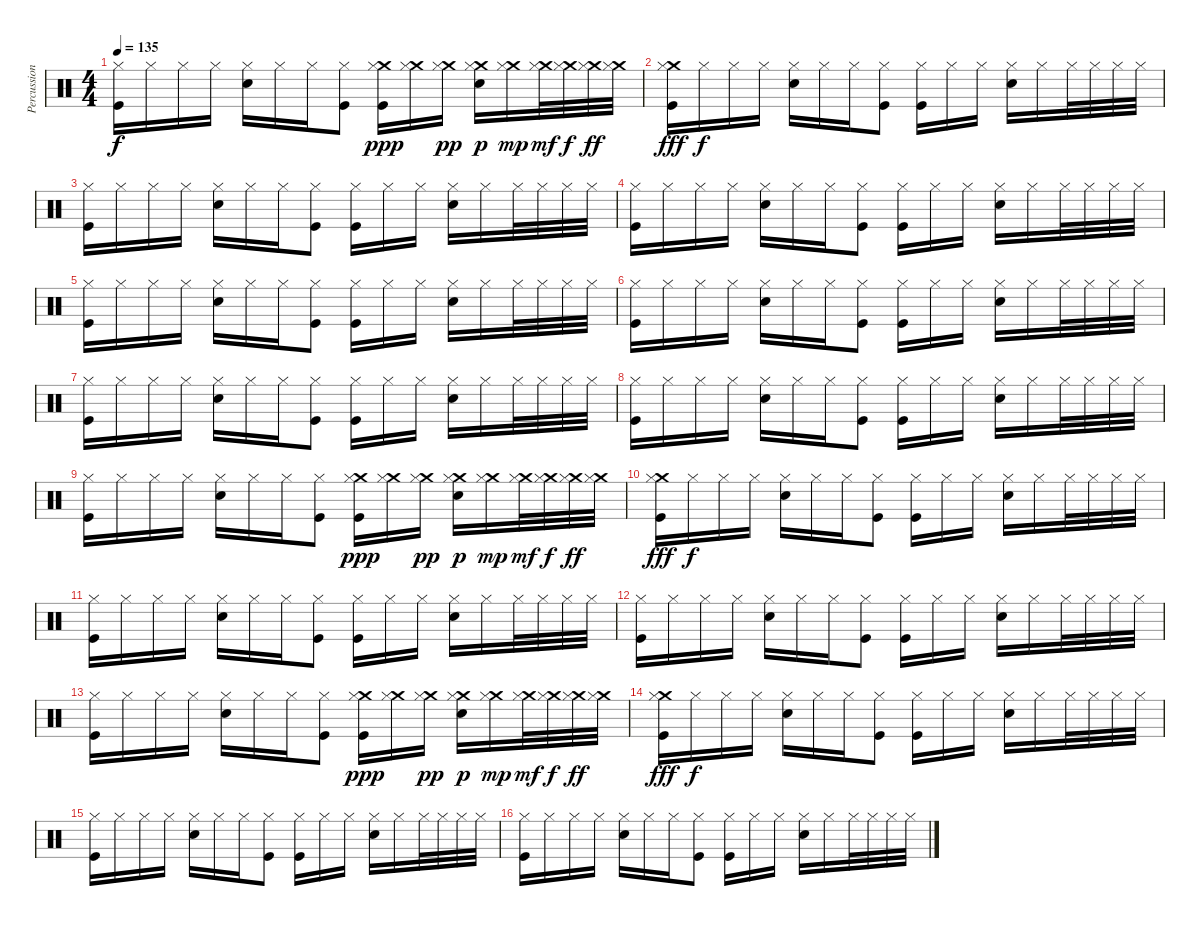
\track ("Percussion" "Percussion") {instrument percussion}
\staff {score}
\articulation defaults
\ts (4 4)
\tempo 135
\clef neutral
\ks c
("Hi-Hat (closed)" "Kick (hit)").16{dy f} "Hi-Hat (closed)".16 "Hi-Hat (closed)".16 "Hi-Hat (closed)".16 ("Hi-Hat (closed)" "Snare (hit) 2").16 "Hi-Hat (closed)".16 "Hi-Hat (closed)".16 ("Hi-Hat (closed)" "Kick (hit)").8 ("Crash medium (hit)" "Hi-Hat (closed)" "Kick (hit)").16{dy ppp} ("Crash medium (hit)" "Hi-Hat (closed)").16 ("Crash medium (hit)" "Hi-Hat (closed)").16{dy pp} ("Crash medium (hit)" "Hi-Hat (closed)" "Snare (hit) 2").16{dy p} ("Crash medium (hit)" "Hi-Hat (closed)").16{dy mp} ("Crash medium (hit)" "Hi-Hat (closed)").32{dy mf} ("Crash medium (hit)" "Hi-Hat (closed)").32{dy f} ("Crash medium (hit)" "Hi-Hat (closed)").32{dy ff} ("Crash medium (hit)" "Hi-Hat (closed)").32 |
("Crash medium (hit)" "Hi-Hat (closed)" "Kick (hit)").16{dy fff} "Hi-Hat (closed)".16{dy f} "Hi-Hat (closed)".16 "Hi-Hat (closed)".16 ("Hi-Hat (closed)" "Snare (hit) 2").16 "Hi-Hat (closed)".16 "Hi-Hat (closed)".16 ("Hi-Hat (closed)" "Kick (hit)").8 ("Hi-Hat (closed)" "Kick (hit)").16 "Hi-Hat (closed)".16 "Hi-Hat (closed)".16 ("Hi-Hat (closed)" "Snare (hit) 2").16 "Hi-Hat (closed)".16 "Hi-Hat (closed)".32 "Hi-Hat (closed)".32 "Hi-Hat (closed)".32 "Hi-Hat (closed)".32 |
("Hi-Hat (closed)" "Kick (hit)").16 "Hi-Hat (closed)".16 "Hi-Hat (closed)".16 "Hi-Hat (closed)".16 ("Hi-Hat (closed)" "Snare (hit) 2").16 "Hi-Hat (closed)".16 "Hi-Hat (closed)".16 ("Hi-Hat (closed)" "Kick (hit)").8 ("Hi-Hat (closed)" "Kick (hit)").16 "Hi-Hat (closed)".16 "Hi-Hat (closed)".16 ("Hi-Hat (closed)" "Snare (hit) 2").16 "Hi-Hat (closed)".16 "Hi-Hat (closed)".32 "Hi-Hat (closed)".32 "Hi-Hat (closed)".32 "Hi-Hat (closed)".32 |
("Hi-Hat (closed)" "Kick (hit)").16 "Hi-Hat (closed)".16 "Hi-Hat (closed)".16 "Hi-Hat (closed)".16 ("Hi-Hat (closed)" "Snare (hit) 2").16 "Hi-Hat (closed)".16 "Hi-Hat (closed)".16 ("Hi-Hat (closed)" "Kick (hit)").8 ("Hi-Hat (closed)" "Kick (hit)").16 "Hi-Hat (closed)".16 "Hi-Hat (closed)".16 ("Hi-Hat (closed)" "Snare (hit) 2").16 "Hi-Hat (closed)".16 "Hi-Hat (closed)".32 "Hi-Hat (closed)".32 "Hi-Hat (closed)".32 "Hi-Hat (closed)".32 |
("Hi-Hat (closed)" "Kick (hit)").16 "Hi-Hat (closed)".16 "Hi-Hat (closed)".16 "Hi-Hat (closed)".16 ("Hi-Hat (closed)" "Snare (hit) 2").16 "Hi-Hat (closed)".16 "Hi-Hat (closed)".16 ("Hi-Hat (closed)" "Kick (hit)").8 ("Hi-Hat (closed)" "Kick (hit)").16 "Hi-Hat (closed)".16 "Hi-Hat (closed)".16 ("Hi-Hat (closed)" "Snare (hit) 2").16 "Hi-Hat (closed)".16 "Hi-Hat (closed)".32 "Hi-Hat (closed)".32 "Hi-Hat (closed)".32 "Hi-Hat (closed)".32 |
("Hi-Hat (closed)" "Kick (hit)").16 "Hi-Hat (closed)".16 "Hi-Hat (closed)".16 "Hi-Hat (closed)".16 ("Hi-Hat (closed)" "Snare (hit) 2").16 "Hi-Hat (closed)".16 "Hi-Hat (closed)".16 ("Hi-Hat (closed)" "Kick (hit)").8 ("Hi-Hat (closed)" "Kick (hit)").16 "Hi-Hat (closed)".16 "Hi-Hat (closed)".16 ("Hi-Hat (closed)" "Snare (hit) 2").16 "Hi-Hat (closed)".16 "Hi-Hat (closed)".32 "Hi-Hat (closed)".32 "Hi-Hat (closed)".32 "Hi-Hat (closed)".32 |
("Hi-Hat (closed)" "Kick (hit)").16 "Hi-Hat (closed)".16 "Hi-Hat (closed)".16 "Hi-Hat (closed)".16 ("Hi-Hat (closed)" "Snare (hit) 2").16 "Hi-Hat (closed)".16 "Hi-Hat (closed)".16 ("Hi-Hat (closed)" "Kick (hit)").8 ("Hi-Hat (closed)" "Kick (hit)").16 "Hi-Hat (closed)".16 "Hi-Hat (closed)".16 ("Hi-Hat (closed)" "Snare (hit) 2").16 "Hi-Hat (closed)".16 "Hi-Hat (closed)".32 "Hi-Hat (closed)".32 "Hi-Hat (closed)".32 "Hi-Hat (closed)".32 |
("Hi-Hat (closed)" "Kick (hit)").16 "Hi-Hat (closed)".16 "Hi-Hat (closed)".16 "Hi-Hat (closed)".16 ("Hi-Hat (closed)" "Snare (hit) 2").16 "Hi-Hat (closed)".16 "Hi-Hat (closed)".16 ("Hi-Hat (closed)" "Kick (hit)").8 ("Hi-Hat (closed)" "Kick (hit)").16 "Hi-Hat (closed)".16 "Hi-Hat (closed)".16 ("Hi-Hat (closed)" "Snare (hit) 2").16 "Hi-Hat (closed)".16 "Hi-Hat (closed)".32 "Hi-Hat (closed)".32 "Hi-Hat (closed)".32 "Hi-Hat (closed)".32 |
("Hi-Hat (closed)" "Kick (hit)").16 "Hi-Hat (closed)".16 "Hi-Hat (closed)".16 "Hi-Hat (closed)".16 ("Hi-Hat (closed)" "Snare (hit) 2").16 "Hi-Hat (closed)".16 "Hi-Hat (closed)".16 ("Hi-Hat (closed)" "Kick (hit)").8 ("Crash medium (hit)" "Hi-Hat (closed)" "Kick (hit)").16{dy ppp} ("Crash medium (hit)" "Hi-Hat (closed)").16 ("Crash medium (hit)" "Hi-Hat (closed)").16{dy pp} ("Crash medium (hit)" "Hi-Hat (closed)" "Snare (hit) 2").16{dy p} ("Crash medium (hit)" "Hi-Hat (closed)").16{dy mp} ("Crash medium (hit)" "Hi-Hat (closed)").32{dy mf} ("Crash medium (hit)" "Hi-Hat (closed)").32{dy f} ("Crash medium (hit)" "Hi-Hat (closed)").32{dy ff} ("Crash medium (hit)" "Hi-Hat (closed)").32 |
("Crash medium (hit)" "Hi-Hat (closed)" "Kick (hit)").16{dy fff} "Hi-Hat (closed)".16{dy f} "Hi-Hat (closed)".16 "Hi-Hat (closed)".16 ("Hi-Hat (closed)" "Snare (hit) 2").16 "Hi-Hat (closed)".16 "Hi-Hat (closed)".16 ("Hi-Hat (closed)" "Kick (hit)").8 ("Hi-Hat (closed)" "Kick (hit)").16 "Hi-Hat (closed)".16 "Hi-Hat (closed)".16 ("Hi-Hat (closed)" "Snare (hit) 2").16 "Hi-Hat (closed)".16 "Hi-Hat (closed)".32 "Hi-Hat (closed)".32 "Hi-Hat (closed)".32 "Hi-Hat (closed)".32 |
("Hi-Hat (closed)" "Kick (hit)").16 "Hi-Hat (closed)".16 "Hi-Hat (closed)".16 "Hi-Hat (closed)".16 ("Hi-Hat (closed)" "Snare (hit) 2").16 "Hi-Hat (closed)".16 "Hi-Hat (closed)".16 ("Hi-Hat (closed)" "Kick (hit)").8 ("Hi-Hat (closed)" "Kick (hit)").16 "Hi-Hat (closed)".16 "Hi-Hat (closed)".16 ("Hi-Hat (closed)" "Snare (hit) 2").16 "Hi-Hat (closed)".16 "Hi-Hat (closed)".32 "Hi-Hat (closed)".32 "Hi-Hat (closed)".32 "Hi-Hat (closed)".32 |
("Hi-Hat (closed)" "Kick (hit)").16 "Hi-Hat (closed)".16 "Hi-Hat (closed)".16 "Hi-Hat (closed)".16 ("Hi-Hat (closed)" "Snare (hit) 2").16 "Hi-Hat (closed)".16 "Hi-Hat (closed)".16 ("Hi-Hat (closed)" "Kick (hit)").8 ("Hi-Hat (closed)" "Kick (hit)").16 "Hi-Hat (closed)".16 "Hi-Hat (closed)".16 ("Hi-Hat (closed)" "Snare (hit) 2").16 "Hi-Hat (closed)".16 "Hi-Hat (closed)".32 "Hi-Hat (closed)".32 "Hi-Hat (closed)".32 "Hi-Hat (closed)".32 |
("Hi-Hat (closed)" "Kick (hit)").16 "Hi-Hat (closed)".16 "Hi-Hat (closed)".16 "Hi-Hat (closed)".16 ("Hi-Hat (closed)" "Snare (hit) 2").16 "Hi-Hat (closed)".16 "Hi-Hat (closed)".16 ("Hi-Hat (closed)" "Kick (hit)").8 ("Crash medium (hit)" "Hi-Hat (closed)" "Kick (hit)").16{dy ppp} ("Crash medium (hit)" "Hi-Hat (closed)").16 ("Crash medium (hit)" "Hi-Hat (closed)").16{dy pp} ("Crash medium (hit)" "Hi-Hat (closed)" "Snare (hit) 2").16{dy p} ("Crash medium (hit)" "Hi-Hat (closed)").16{dy mp} ("Crash medium (hit)" "Hi-Hat (closed)").32{dy mf} ("Crash medium (hit)" "Hi-Hat (closed)").32{dy f} ("Crash medium (hit)" "Hi-Hat (closed)").32{dy ff} ("Crash medium (hit)" "Hi-Hat (closed)").32 |
("Crash medium (hit)" "Hi-Hat (closed)" "Kick (hit)").16{dy fff} "Hi-Hat (closed)".16{dy f} "Hi-Hat (closed)".16 "Hi-Hat (closed)".16 ("Hi-Hat (closed)" "Snare (hit) 2").16 "Hi-Hat (closed)".16 "Hi-Hat (closed)".16 ("Hi-Hat (closed)" "Kick (hit)").8 ("Hi-Hat (closed)" "Kick (hit)").16 "Hi-Hat (closed)".16 "Hi-Hat (closed)".16 ("Hi-Hat (closed)" "Snare (hit) 2").16 "Hi-Hat (closed)".16 "Hi-Hat (closed)".32 "Hi-Hat (closed)".32 "Hi-Hat (closed)".32 "Hi-Hat (closed)".32 |
("Hi-Hat (closed)" "Kick (hit)").16 "Hi-Hat (closed)".16 "Hi-Hat (closed)".16 "Hi-Hat (closed)".16 ("Hi-Hat (closed)" "Snare (hit) 2").16 "Hi-Hat (closed)".16 "Hi-Hat (closed)".16 ("Hi-Hat (closed)" "Kick (hit)").8 ("Hi-Hat (closed)" "Kick (hit)").16 "Hi-Hat (closed)".16 "Hi-Hat (closed)".16 ("Hi-Hat (closed)" "Snare (hit) 2").16 "Hi-Hat (closed)".16 "Hi-Hat (closed)".32 "Hi-Hat (closed)".32 "Hi-Hat (closed)".32 "Hi-Hat (closed)".32 |
("Hi-Hat (closed)" "Kick (hit)").16 "Hi-Hat (closed)".16 "Hi-Hat (closed)".16 "Hi-Hat (closed)".16 ("Hi-Hat (closed)" "Snare (hit) 2").16 "Hi-Hat (closed)".16 "Hi-Hat (closed)".16 ("Hi-Hat (closed)" "Kick (hit)").8 ("Hi-Hat (closed)" "Kick (hit)").16 "Hi-Hat (closed)".16 "Hi-Hat (closed)".16 ("Hi-Hat (closed)" "Snare (hit) 2").16 "Hi-Hat (closed)".16 "Hi-Hat (closed)".32 "Hi-Hat (closed)".32 "Hi-Hat (closed)".32 "Hi-Hat (closed)".32
